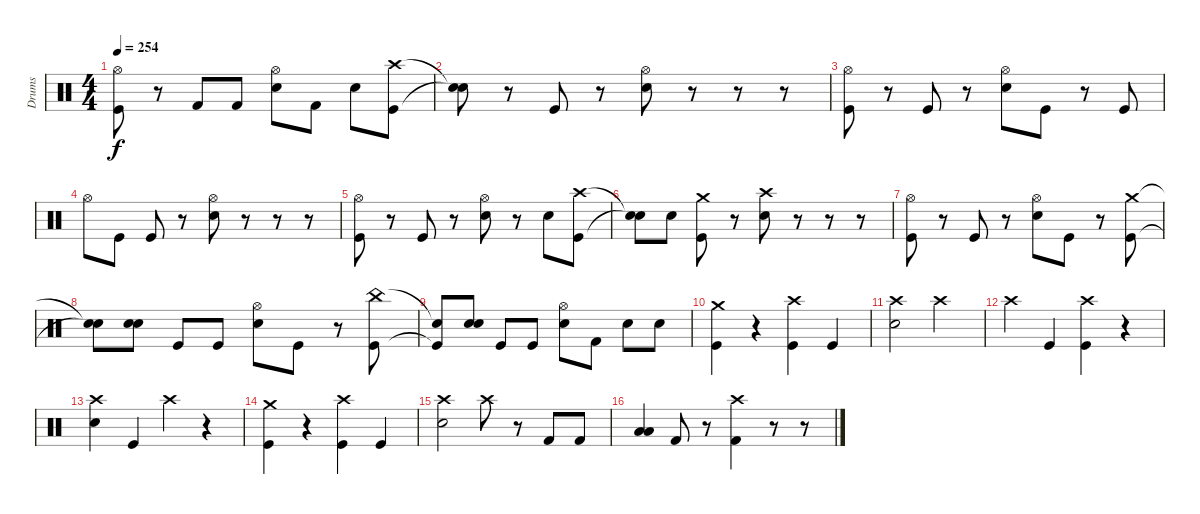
\track ("Drums" "Drums") {instrument percussion}
\staff {score}
\articulation defaults
\ts (4 4)
\tempo 254
\clef neutral
\ks c
("Hi-Hat (open)" "Kick (hit)").8{dy f} r.8 "Kick (hit) 2".8 "Kick (hit) 2".8 ("Hi-Hat (open)" "Electric Snare (hit)").8 "Kick (hit) 2".8 "Electric Snare (hit)".8 ("Crash high (hit)" "Kick (hit)").8 |
("Snare (hit)"{t} "Snare (hit)"{t}).8 r.8 "Kick (hit)".8 r.8 ("Hi-Hat (open)" "Electric Snare (hit)").8 r.8 r.8 r.8 |
("Hi-Hat (open)" "Kick (hit)").8 r.8 "Kick (hit)".8 r.8 ("Hi-Hat (open)" "Electric Snare (hit)").8 "Kick (hit)".8 r.8 "Kick (hit)".8 |
"Hi-Hat (open)".8 "Kick (hit)".8 "Kick (hit)".8 r.8 ("Hi-Hat (open)" "Electric Snare (hit)").8 r.8 r.8 r.8 |
("Hi-Hat (open)" "Kick (hit)").8 r.8 "Kick (hit)".8 r.8 ("Hi-Hat (open)" "Electric Snare (hit)").8 r.8 "Electric Snare (hit)".8 ("Crash high (hit)" "Kick (hit)").8 |
("Snare (hit)"{t} "Snare (hit)"{t}).8 "Electric Snare (hit)".8 ("Crash medium (hit)" "Kick (hit)").8 r.8 ("Crash high (hit)" "Electric Snare (hit)").8 r.8 r.8 r.8 |
("Hi-Hat (open)" "Kick (hit)").8 r.8 "Kick (hit)".8 r.8 ("Hi-Hat (open)" "Electric Snare (hit)").8 "Kick (hit)".8 r.8 ("Crash medium (hit)" "Kick (hit)").8 |
("Snare (hit)"{t} "Snare (hit)"{t}).8 ("Electric Snare (hit)" "Electric Snare (hit)").8{bd 480} "Kick (hit)".8 "Kick (hit)".8 ("Hi-Hat (open)" "Electric Snare (hit)").8 "Kick (hit)".8 r.8 ("China (hit)" "Kick (hit)").8 |
("Snare (hit)"{t} "Kick (hit)"{t}).8 ("Electric Snare (hit)" "Electric Snare (hit)").8{bd 480} "Kick (hit)".8 "Kick (hit)".8 ("Hi-Hat (open)" "Electric Snare (hit)").8 "Kick (hit) 2".8 "Electric Snare (hit)".8 "Electric Snare (hit)".8 |
("Crash medium (hit)" "Kick (hit)").4 r.4 ("Crash high (hit)" "Kick (hit)").4 "Kick (hit)".4 |
("Crash high (hit)" "Electric Snare (hit)").2 "Crash high (hit)".2 |
"Crash high (hit)".4 "Kick (hit)".4 ("Crash high (hit)" "Kick (hit)").4 r.4 |
("Crash high (hit)" "Electric Snare (hit)").4 "Kick (hit)".4 "Crash high (hit)".4 r.4 |
("Crash medium (hit)" "Kick (hit)").4 r.4 ("Crash high (hit)" "Kick (hit)").4 "Kick (hit)".4 |
("Crash high (hit)" "Electric Snare (hit)").2 "Crash high (hit)".8 r.8 "Kick (hit) 2".8 "Kick (hit) 2".8 |
("Low Tom (hit)" "Low Tom (hit)").4{bu 60} "Kick (hit) 2".8 r.8 ("Crash high (hit)" "Kick (hit) 2").4 r.8 r.8
